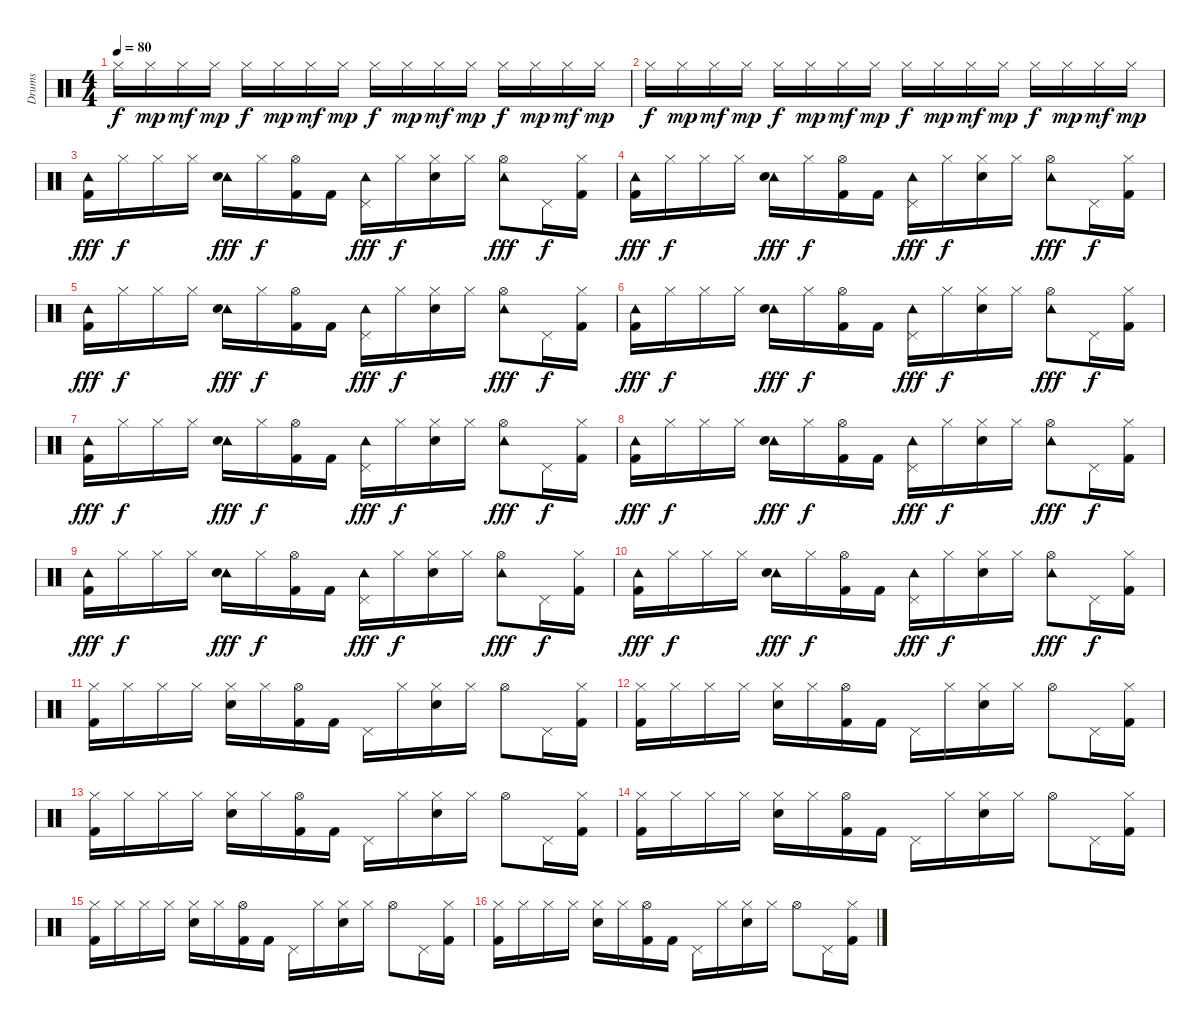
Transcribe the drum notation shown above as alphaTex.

\track ("Drums" "Drums") {instrument percussion}
\staff {score}
\articulation defaults
\ts (4 4)
\tempo 80
\clef neutral
\ks c "Hi-Hat (closed)".16{dy f} "Hi-Hat (closed)".16{dy mp} "Hi-Hat (closed)".16{dy mf} "Hi-Hat (closed)".16{dy mp} "Hi-Hat (closed)".16{dy f} "Hi-Hat (closed)".16{dy mp} "Hi-Hat (closed)".16{dy mf} "Hi-Hat (closed)".16{dy mp} "Hi-Hat (closed)".16{dy f} "Hi-Hat (closed)".16{dy mp} "Hi-Hat (closed)".16{dy mf} "Hi-Hat (closed)".16{dy mp} "Hi-Hat (closed)".16{dy f} "Hi-Hat (closed)".16{dy mp} "Hi-Hat (closed)".16{dy mf} "Hi-Hat (closed)".16{dy mp}
|
"Hi-Hat (closed)".16{dy f} "Hi-Hat (closed)".16{dy mp} "Hi-Hat (closed)".16{dy mf} "Hi-Hat (closed)".16{dy mp} "Hi-Hat (closed)".16{dy f} "Hi-Hat (closed)".16{dy mp} "Hi-Hat (closed)".16{dy mf} "Hi-Hat (closed)".16{dy mp} "Hi-Hat (closed)".16{dy f} "Hi-Hat (closed)".16{dy mp} "Hi-Hat (closed)".16{dy mf} "Hi-Hat (closed)".16{dy mp} "Hi-Hat (closed)".16{dy f} "Hi-Hat (closed)".16{dy mp} "Hi-Hat (closed)".16{dy mf} "Hi-Hat (closed)".16{dy mp} |
("Tambourine (hit)" "Kick (hit) 2").16{dy fff} "Hi-Hat (closed)".16{dy f} "Hi-Hat (closed)".16 "Hi-Hat (closed)".16 ("Tambourine (hit)" "Electric Snare (hit)").16{dy fff} "Hi-Hat (closed)".16{dy f} ("Hi-Hat (open)" "Kick (hit) 2").16 "Kick (hit) 2".16 ("Pedal Hi-Hat (hit)" "Tambourine (hit)").16{dy fff} "Hi-Hat (closed)".16{dy f} ("Hi-Hat (closed)" "Electric Snare (hit)").16 "Hi-Hat (closed)".16 ("Hi-Hat (open)" "Tambourine (hit)").8{dy fff} "Pedal Hi-Hat (hit)".16{dy f} ("Hi-Hat (closed)" "Kick (hit) 2").16 |
("Tambourine (hit)" "Kick (hit) 2").16{dy fff} "Hi-Hat (closed)".16{dy f} "Hi-Hat (closed)".16 "Hi-Hat (closed)".16 ("Tambourine (hit)" "Electric Snare (hit)").16{dy fff} "Hi-Hat (closed)".16{dy f} ("Hi-Hat (open)" "Kick (hit) 2").16 "Kick (hit) 2".16 ("Pedal Hi-Hat (hit)" "Tambourine (hit)").16{dy fff} "Hi-Hat (closed)".16{dy f} ("Hi-Hat (closed)" "Electric Snare (hit)").16 "Hi-Hat (closed)".16 ("Hi-Hat (open)" "Tambourine (hit)").8{dy fff} "Pedal Hi-Hat (hit)".16{dy f} ("Hi-Hat (closed)" "Kick (hit) 2").16 |
("Tambourine (hit)" "Kick (hit) 2").16{dy fff} "Hi-Hat (closed)".16{dy f} "Hi-Hat (closed)".16 "Hi-Hat (closed)".16 ("Tambourine (hit)" "Electric Snare (hit)").16{dy fff} "Hi-Hat (closed)".16{dy f} ("Hi-Hat (open)" "Kick (hit) 2").16 "Kick (hit) 2".16 ("Pedal Hi-Hat (hit)" "Tambourine (hit)").16{dy fff} "Hi-Hat (closed)".16{dy f} ("Hi-Hat (closed)" "Electric Snare (hit)").16 "Hi-Hat (closed)".16 ("Hi-Hat (open)" "Tambourine (hit)").8{dy fff} "Pedal Hi-Hat (hit)".16{dy f} ("Hi-Hat (closed)" "Kick (hit) 2").16 |
("Tambourine (hit)" "Kick (hit) 2").16{dy fff} "Hi-Hat (closed)".16{dy f} "Hi-Hat (closed)".16 "Hi-Hat (closed)".16 ("Tambourine (hit)" "Electric Snare (hit)").16{dy fff} "Hi-Hat (closed)".16{dy f} ("Hi-Hat (open)" "Kick (hit) 2").16 "Kick (hit) 2".16 ("Pedal Hi-Hat (hit)" "Tambourine (hit)").16{dy fff} "Hi-Hat (closed)".16{dy f} ("Hi-Hat (closed)" "Electric Snare (hit)").16 "Hi-Hat (closed)".16 ("Hi-Hat (open)" "Tambourine (hit)").8{dy fff} "Pedal Hi-Hat (hit)".16{dy f} ("Hi-Hat (closed)" "Kick (hit) 2").16 |
("Tambourine (hit)" "Kick (hit) 2").16{dy fff} "Hi-Hat (closed)".16{dy f} "Hi-Hat (closed)".16 "Hi-Hat (closed)".16 ("Tambourine (hit)" "Electric Snare (hit)").16{dy fff} "Hi-Hat (closed)".16{dy f} ("Hi-Hat (open)" "Kick (hit) 2").16 "Kick (hit) 2".16 ("Pedal Hi-Hat (hit)" "Tambourine (hit)").16{dy fff} "Hi-Hat (closed)".16{dy f} ("Hi-Hat (closed)" "Electric Snare (hit)").16 "Hi-Hat (closed)".16 ("Hi-Hat (open)" "Tambourine (hit)").8{dy fff} "Pedal Hi-Hat (hit)".16{dy f} ("Hi-Hat (closed)" "Kick (hit) 2").16 |
("Tambourine (hit)" "Kick (hit) 2").16{dy fff} "Hi-Hat (closed)".16{dy f} "Hi-Hat (closed)".16 "Hi-Hat (closed)".16 ("Tambourine (hit)" "Electric Snare (hit)").16{dy fff} "Hi-Hat (closed)".16{dy f} ("Hi-Hat (open)" "Kick (hit) 2").16 "Kick (hit) 2".16 ("Pedal Hi-Hat (hit)" "Tambourine (hit)").16{dy fff} "Hi-Hat (closed)".16{dy f} ("Hi-Hat (closed)" "Electric Snare (hit)").16 "Hi-Hat (closed)".16 ("Hi-Hat (open)" "Tambourine (hit)").8{dy fff} "Pedal Hi-Hat (hit)".16{dy f} ("Hi-Hat (closed)" "Kick (hit) 2").16 |
("Tambourine (hit)" "Kick (hit) 2").16{dy fff} "Hi-Hat (closed)".16{dy f} "Hi-Hat (closed)".16 "Hi-Hat (closed)".16 ("Tambourine (hit)" "Electric Snare (hit)").16{dy fff} "Hi-Hat (closed)".16{dy f} ("Hi-Hat (open)" "Kick (hit) 2").16 "Kick (hit) 2".16 ("Pedal Hi-Hat (hit)" "Tambourine (hit)").16{dy fff} "Hi-Hat (closed)".16{dy f} ("Hi-Hat (closed)" "Electric Snare (hit)").16 "Hi-Hat (closed)".16 ("Hi-Hat (open)" "Tambourine (hit)").8{dy fff} "Pedal Hi-Hat (hit)".16{dy f} ("Hi-Hat (closed)" "Kick (hit) 2").16 |
("Tambourine (hit)" "Kick (hit) 2").16{dy fff} "Hi-Hat (closed)".16{dy f} "Hi-Hat (closed)".16 "Hi-Hat (closed)".16 ("Tambourine (hit)" "Electric Snare (hit)").16{dy fff} "Hi-Hat (closed)".16{dy f} ("Hi-Hat (open)" "Kick (hit) 2").16 "Kick (hit) 2".16 ("Pedal Hi-Hat (hit)" "Tambourine (hit)").16{dy fff} "Hi-Hat (closed)".16{dy f} ("Hi-Hat (closed)" "Electric Snare (hit)").16 "Hi-Hat (closed)".16 ("Hi-Hat (open)" "Tambourine (hit)").8{dy fff} "Pedal Hi-Hat (hit)".16{dy f} ("Hi-Hat (closed)" "Kick (hit) 2").16 |
("Hi-Hat (closed)" "Kick (hit) 2").16 "Hi-Hat (closed)".16 "Hi-Hat (closed)".16 "Hi-Hat (closed)".16 ("Hi-Hat (closed)" "Electric Snare (hit)").16 "Hi-Hat (closed)".16 ("Hi-Hat (open)" "Kick (hit) 2").16 "Kick (hit) 2".16 "Pedal Hi-Hat (hit)".16 "Hi-Hat (closed)".16 ("Hi-Hat (closed)" "Electric Snare (hit)").16 "Hi-Hat (closed)".16 "Hi-Hat (open)".8 "Pedal Hi-Hat (hit)".16 ("Hi-Hat (closed)" "Kick (hit) 2").16 |
("Hi-Hat (closed)" "Kick (hit) 2").16 "Hi-Hat (closed)".16 "Hi-Hat (closed)".16 "Hi-Hat (closed)".16 ("Hi-Hat (closed)" "Electric Snare (hit)").16 "Hi-Hat (closed)".16 ("Hi-Hat (open)" "Kick (hit) 2").16 "Kick (hit) 2".16 "Pedal Hi-Hat (hit)".16 "Hi-Hat (closed)".16 ("Hi-Hat (closed)" "Electric Snare (hit)").16 "Hi-Hat (closed)".16 "Hi-Hat (open)".8 "Pedal Hi-Hat (hit)".16 ("Hi-Hat (closed)" "Kick (hit) 2").16 |
("Hi-Hat (closed)" "Kick (hit) 2").16 "Hi-Hat (closed)".16 "Hi-Hat (closed)".16 "Hi-Hat (closed)".16 ("Hi-Hat (closed)" "Electric Snare (hit)").16 "Hi-Hat (closed)".16 ("Hi-Hat (open)" "Kick (hit) 2").16 "Kick (hit) 2".16 "Pedal Hi-Hat (hit)".16 "Hi-Hat (closed)".16 ("Hi-Hat (closed)" "Electric Snare (hit)").16 "Hi-Hat (closed)".16 "Hi-Hat (open)".8 "Pedal Hi-Hat (hit)".16 ("Hi-Hat (closed)" "Kick (hit) 2").16 |
("Hi-Hat (closed)" "Kick (hit) 2").16 "Hi-Hat (closed)".16 "Hi-Hat (closed)".16 "Hi-Hat (closed)".16 ("Hi-Hat (closed)" "Electric Snare (hit)").16 "Hi-Hat (closed)".16 ("Hi-Hat (open)" "Kick (hit) 2").16 "Kick (hit) 2".16 "Pedal Hi-Hat (hit)".16 "Hi-Hat (closed)".16 ("Hi-Hat (closed)" "Electric Snare (hit)").16 "Hi-Hat (closed)".16 "Hi-Hat (open)".8 "Pedal Hi-Hat (hit)".16 ("Hi-Hat (closed)" "Kick (hit) 2").16 |
("Hi-Hat (closed)" "Kick (hit) 2").16 "Hi-Hat (closed)".16 "Hi-Hat (closed)".16 "Hi-Hat (closed)".16 ("Hi-Hat (closed)" "Electric Snare (hit)").16 "Hi-Hat (closed)".16 ("Hi-Hat (open)" "Kick (hit) 2").16 "Kick (hit) 2".16 "Pedal Hi-Hat (hit)".16 "Hi-Hat (closed)".16 ("Hi-Hat (closed)" "Electric Snare (hit)").16 "Hi-Hat (closed)".16 "Hi-Hat (open)".8 "Pedal Hi-Hat (hit)".16 ("Hi-Hat (closed)" "Kick (hit) 2").16 |
("Hi-Hat (closed)" "Kick (hit) 2").16 "Hi-Hat (closed)".16 "Hi-Hat (closed)".16 "Hi-Hat (closed)".16 ("Hi-Hat (closed)" "Electric Snare (hit)").16 "Hi-Hat (closed)".16 ("Hi-Hat (open)" "Kick (hit) 2").16 "Kick (hit) 2".16 "Pedal Hi-Hat (hit)".16 "Hi-Hat (closed)".16 ("Hi-Hat (closed)" "Electric Snare (hit)").16 "Hi-Hat (closed)".16 "Hi-Hat (open)".8 "Pedal Hi-Hat (hit)".16 ("Hi-Hat (closed)" "Kick (hit) 2").16
